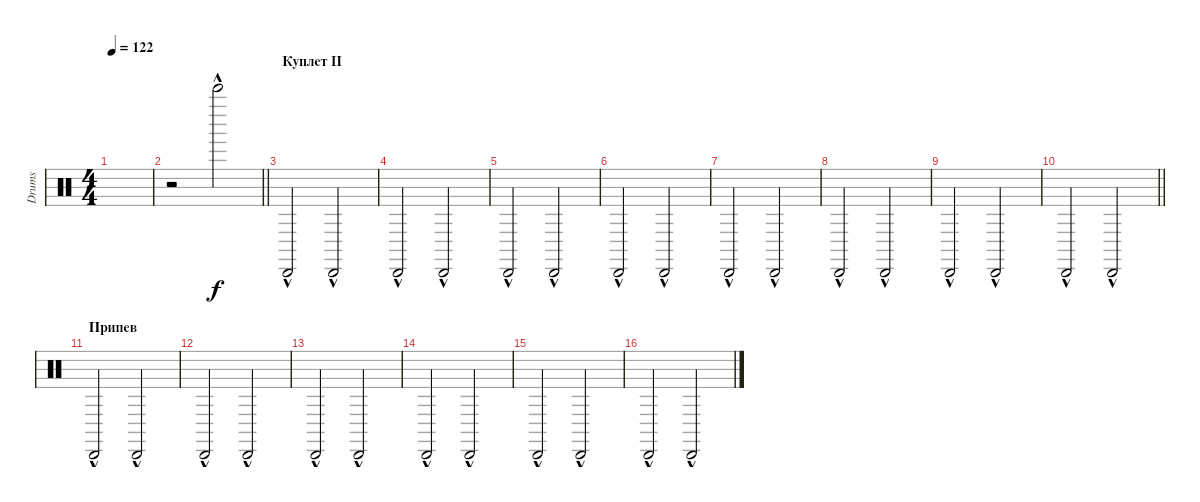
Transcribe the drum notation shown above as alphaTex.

\track ("Drums" "Drums") {instrument percussion}
\staff {score}
\articulation defaults
\ts (4 4)
\tempo 122
\clef neutral
\ks c
|
\barLineRight lightlight
r.2 "Bell Tree (hit)"{hac}.2 |
\section ("" "Куплет II")
"Cabasa (hit)"{hac}.2 "Cabasa (hit)"{hac}.2 |
"Cabasa (hit)"{hac}.2 "Cabasa (hit)"{hac}.2 |
"Cabasa (hit)"{hac}.2 "Cabasa (hit)"{hac}.2 |
"Cabasa (hit)"{hac}.2 "Cabasa (hit)"{hac}.2 |
"Cabasa (hit)"{hac}.2 "Cabasa (hit)"{hac}.2 |
"Cabasa (hit)"{hac}.2 "Cabasa (hit)"{hac}.2 |
"Cabasa (hit)"{hac}.2 "Cabasa (hit)"{hac}.2 |
\barLineRight lightlight "Cabasa (hit)"{hac}.2 "Cabasa (hit)"{hac}.2
|
\section ("" "Припев")
"Cabasa (hit)"{hac}.2 "Cabasa (hit)"{hac}.2 |
"Cabasa (hit)"{hac}.2 "Cabasa (hit)"{hac}.2 |
"Cabasa (hit)"{hac}.2 "Cabasa (hit)"{hac}.2 |
"Cabasa (hit)"{hac}.2 "Cabasa (hit)"{hac}.2 |
"Cabasa (hit)"{hac}.2 "Cabasa (hit)"{hac}.2 |
"Cabasa (hit)"{hac}.2 "Cabasa (hit)"{hac}.2
